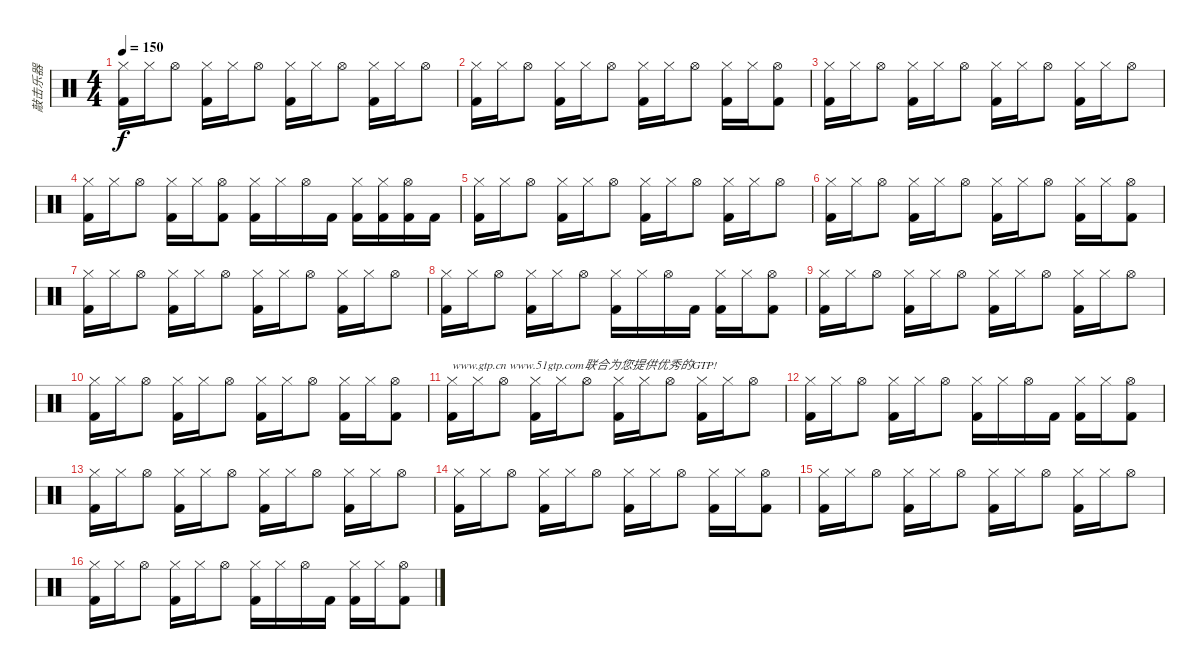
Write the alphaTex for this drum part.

\track ("敲击乐器" "敲击乐器") {instrument percussion}
\staff {score}
\articulation defaults
\ts (4 4)
\tempo 150
\clef neutral
\ks c
("Hi-Hat (closed)" "Kick (hit) 2").16{dy f} "Hi-Hat (closed)".16 "Hi-Hat (open)".8 ("Hi-Hat (closed)" "Kick (hit) 2").16 "Hi-Hat (closed)".16 "Hi-Hat (open)".8 ("Hi-Hat (closed)" "Kick (hit) 2").16 "Hi-Hat (closed)".16 "Hi-Hat (open)".8 ("Hi-Hat (closed)" "Kick (hit) 2").16 "Hi-Hat (closed)".16 "Hi-Hat (open)".8 |
("Hi-Hat (closed)" "Kick (hit) 2").16 "Hi-Hat (closed)".16 "Hi-Hat (open)".8 ("Hi-Hat (closed)" "Kick (hit) 2").16 "Hi-Hat (closed)".16 "Hi-Hat (open)".8 ("Hi-Hat (closed)" "Kick (hit) 2").16 "Hi-Hat (closed)".16 "Hi-Hat (open)".8 ("Hi-Hat (closed)" "Kick (hit) 2").16 "Hi-Hat (closed)".16 ("Hi-Hat (open)" "Kick (hit) 2").8 |
("Hi-Hat (closed)" "Kick (hit) 2").16 "Hi-Hat (closed)".16 "Hi-Hat (open)".8 ("Hi-Hat (closed)" "Kick (hit) 2").16 "Hi-Hat (closed)".16 "Hi-Hat (open)".8 ("Hi-Hat (closed)" "Kick (hit) 2").16 "Hi-Hat (closed)".16 "Hi-Hat (open)".8 ("Hi-Hat (closed)" "Kick (hit) 2").16 "Hi-Hat (closed)".16 "Hi-Hat (open)".8 |
("Hi-Hat (closed)" "Kick (hit) 2").16 "Hi-Hat (closed)".16 "Hi-Hat (open)".8 ("Hi-Hat (closed)" "Kick (hit) 2").16 "Hi-Hat (closed)".16 ("Hi-Hat (open)" "Kick (hit) 2").8 ("Hi-Hat (closed)" "Kick (hit) 2").16 "Hi-Hat (closed)".16 "Hi-Hat (open)".16 "Kick (hit) 2".16 ("Hi-Hat (closed)" "Kick (hit) 2").16 ("Hi-Hat (closed)" "Kick (hit) 2").16 ("Hi-Hat (open)" "Kick (hit) 2").16 "Kick (hit) 2".16 |
("Hi-Hat (closed)" "Kick (hit) 2").16 "Hi-Hat (closed)".16 "Hi-Hat (open)".8 ("Hi-Hat (closed)" "Kick (hit) 2").16 "Hi-Hat (closed)".16 "Hi-Hat (open)".8 ("Hi-Hat (closed)" "Kick (hit) 2").16 "Hi-Hat (closed)".16 "Hi-Hat (open)".8 ("Hi-Hat (closed)" "Kick (hit) 2").16 "Hi-Hat (closed)".16 "Hi-Hat (open)".8 |
("Hi-Hat (closed)" "Kick (hit) 2").16 "Hi-Hat (closed)".16 "Hi-Hat (open)".8 ("Hi-Hat (closed)" "Kick (hit) 2").16 "Hi-Hat (closed)".16 "Hi-Hat (open)".8 ("Hi-Hat (closed)" "Kick (hit) 2").16 "Hi-Hat (closed)".16 "Hi-Hat (open)".8 ("Hi-Hat (closed)" "Kick (hit) 2").16 "Hi-Hat (closed)".16 ("Hi-Hat (open)" "Kick (hit) 2").8 |
("Hi-Hat (closed)" "Kick (hit) 2").16 "Hi-Hat (closed)".16 "Hi-Hat (open)".8 ("Hi-Hat (closed)" "Kick (hit) 2").16 "Hi-Hat (closed)".16 "Hi-Hat (open)".8 ("Hi-Hat (closed)" "Kick (hit) 2").16 "Hi-Hat (closed)".16 "Hi-Hat (open)".8 ("Hi-Hat (closed)" "Kick (hit) 2").16 "Hi-Hat (closed)".16 "Hi-Hat (open)".8 |
("Hi-Hat (closed)" "Kick (hit) 2").16 "Hi-Hat (closed)".16 "Hi-Hat (open)".8 ("Hi-Hat (closed)" "Kick (hit) 2").16 "Hi-Hat (closed)".16 "Hi-Hat (open)".8 ("Hi-Hat (closed)" "Kick (hit) 2").16 "Hi-Hat (closed)".16 "Hi-Hat (open)".16 "Kick (hit) 2".16 ("Hi-Hat (closed)" "Kick (hit) 2").16 "Hi-Hat (closed)".16 ("Hi-Hat (open)" "Kick (hit) 2").8 |
("Hi-Hat (closed)" "Kick (hit) 2").16 "Hi-Hat (closed)".16 "Hi-Hat (open)".8 ("Hi-Hat (closed)" "Kick (hit) 2").16 "Hi-Hat (closed)".16 "Hi-Hat (open)".8 ("Hi-Hat (closed)" "Kick (hit) 2").16 "Hi-Hat (closed)".16 "Hi-Hat (open)".8 ("Hi-Hat (closed)" "Kick (hit) 2").16 "Hi-Hat (closed)".16 "Hi-Hat (open)".8 |
("Hi-Hat (closed)" "Kick (hit) 2").16 "Hi-Hat (closed)".16 "Hi-Hat (open)".8 ("Hi-Hat (closed)" "Kick (hit) 2").16 "Hi-Hat (closed)".16 "Hi-Hat (open)".8 ("Hi-Hat (closed)" "Kick (hit) 2").16 "Hi-Hat (closed)".16 "Hi-Hat (open)".8 ("Hi-Hat (closed)" "Kick (hit) 2").16 "Hi-Hat (closed)".16 ("Hi-Hat (open)" "Kick (hit) 2").8 |
("Hi-Hat (closed)" "Kick (hit) 2").16{txt "www.gtp.cn www.51gtp.com联合为您提供优秀的GTP!"} "Hi-Hat (closed)".16 "Hi-Hat (open)".8 ("Hi-Hat (closed)" "Kick (hit) 2").16 "Hi-Hat (closed)".16 "Hi-Hat (open)".8 ("Hi-Hat (closed)" "Kick (hit) 2").16 "Hi-Hat (closed)".16 "Hi-Hat (open)".8 ("Hi-Hat (closed)" "Kick (hit) 2").16 "Hi-Hat (closed)".16 "Hi-Hat (open)".8 |
("Hi-Hat (closed)" "Kick (hit) 2").16 "Hi-Hat (closed)".16 "Hi-Hat (open)".8 ("Hi-Hat (closed)" "Kick (hit) 2").16 "Hi-Hat (closed)".16 "Hi-Hat (open)".8 ("Hi-Hat (closed)" "Kick (hit) 2").16 "Hi-Hat (closed)".16 "Hi-Hat (open)".16 "Kick (hit) 2".16 ("Hi-Hat (closed)" "Kick (hit) 2").16 "Hi-Hat (closed)".16 ("Hi-Hat (open)" "Kick (hit) 2").8 |
("Hi-Hat (closed)" "Kick (hit) 2").16 "Hi-Hat (closed)".16 "Hi-Hat (open)".8 ("Hi-Hat (closed)" "Kick (hit) 2").16 "Hi-Hat (closed)".16 "Hi-Hat (open)".8 ("Hi-Hat (closed)" "Kick (hit) 2").16 "Hi-Hat (closed)".16 "Hi-Hat (open)".8 ("Hi-Hat (closed)" "Kick (hit) 2").16 "Hi-Hat (closed)".16 "Hi-Hat (open)".8 |
("Hi-Hat (closed)" "Kick (hit) 2").16 "Hi-Hat (closed)".16 "Hi-Hat (open)".8 ("Hi-Hat (closed)" "Kick (hit) 2").16 "Hi-Hat (closed)".16 "Hi-Hat (open)".8 ("Hi-Hat (closed)" "Kick (hit) 2").16 "Hi-Hat (closed)".16 "Hi-Hat (open)".8 ("Hi-Hat (closed)" "Kick (hit) 2").16 "Hi-Hat (closed)".16 ("Hi-Hat (open)" "Kick (hit) 2").8 |
("Hi-Hat (closed)" "Kick (hit) 2").16 "Hi-Hat (closed)".16 "Hi-Hat (open)".8 ("Hi-Hat (closed)" "Kick (hit) 2").16 "Hi-Hat (closed)".16 "Hi-Hat (open)".8 ("Hi-Hat (closed)" "Kick (hit) 2").16 "Hi-Hat (closed)".16 "Hi-Hat (open)".8 ("Hi-Hat (closed)" "Kick (hit) 2").16 "Hi-Hat (closed)".16 "Hi-Hat (open)".8 |
("Hi-Hat (closed)" "Kick (hit) 2").16 "Hi-Hat (closed)".16 "Hi-Hat (open)".8 ("Hi-Hat (closed)" "Kick (hit) 2").16 "Hi-Hat (closed)".16 "Hi-Hat (open)".8 ("Hi-Hat (closed)" "Kick (hit) 2").16 "Hi-Hat (closed)".16 "Hi-Hat (open)".16 "Kick (hit) 2".16 ("Hi-Hat (closed)" "Kick (hit) 2").16 "Hi-Hat (closed)".16 ("Hi-Hat (open)" "Kick (hit) 2").8
